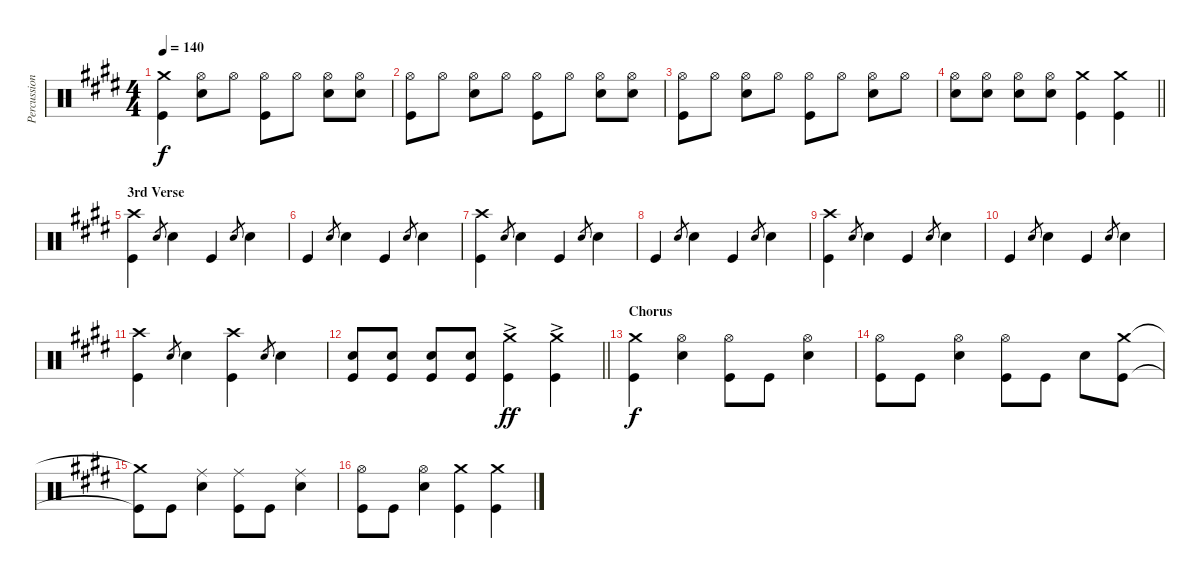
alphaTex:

\track ("Percussion" "Percussion") {instrument percussion}
\staff {score}
\articulation defaults
\ts (4 4)
\tempo 140
\clef neutral
\ks e
("Crash medium (hit)" "Kick (hit)").4{dy f} ("Hi-Hat (open)" "Snare (hit) 2").8 "Hi-Hat (open)".8 ("Hi-Hat (open)" "Kick (hit)").8 "Hi-Hat (open)".8 ("Hi-Hat (open)" "Snare (hit) 2").8 ("Hi-Hat (open)" "Snare (hit) 2").8 |
("Hi-Hat (open)" "Kick (hit)").8 "Hi-Hat (open)".8 ("Hi-Hat (open)" "Snare (hit) 2").8 "Hi-Hat (open)".8 ("Hi-Hat (open)" "Kick (hit)").8 "Hi-Hat (open)".8 ("Hi-Hat (open)" "Snare (hit) 2").8 ("Hi-Hat (open)" "Snare (hit) 2").8 |
("Hi-Hat (open)" "Kick (hit)").8 "Hi-Hat (open)".8 ("Hi-Hat (open)" "Snare (hit) 2").8 "Hi-Hat (open)".8 ("Hi-Hat (open)" "Kick (hit)").8 "Hi-Hat (open)".8 ("Hi-Hat (open)" "Snare (hit) 2").8 "Hi-Hat (open)".8 |
\barLineRight lightlight
("Hi-Hat (open)" "Snare (hit) 2").8 ("Hi-Hat (open)" "Snare (hit) 2").8 ("Hi-Hat (open)" "Snare (hit) 2").8 ("Hi-Hat (open)" "Snare (hit) 2").8 ("Crash medium (hit)" "Kick (hit)").4 ("Crash medium (hit)" "Kick (hit)").4 |
\section ("" "3rd Verse")
("Crash high (hit)" "Kick (hit)").4 "Snare (hit) 2".8{gr} "Snare (hit) 2".4 "Kick (hit)".4 "Snare (hit) 2".8{gr} "Snare (hit) 2".4 |
"Kick (hit)".4 "Snare (hit) 2".8{gr} "Snare (hit) 2".4 "Kick (hit)".4 "Snare (hit) 2".8{gr} "Snare (hit) 2".4 |
("Crash high (hit)" "Kick (hit)").4 "Snare (hit) 2".8{gr} "Snare (hit) 2".4 "Kick (hit)".4 "Snare (hit) 2".8{gr} "Snare (hit) 2".4 |
"Kick (hit)".4 "Snare (hit) 2".8{gr} "Snare (hit) 2".4 "Kick (hit)".4 "Snare (hit) 2".8{gr} "Snare (hit) 2".4 |
("Crash high (hit)" "Kick (hit)").4 "Snare (hit) 2".8{gr} "Snare (hit) 2".4 "Kick (hit)".4 "Snare (hit) 2".8{gr} "Snare (hit) 2".4 |
"Kick (hit)".4 "Snare (hit) 2".8{gr} "Snare (hit) 2".4 "Kick (hit)".4 "Snare (hit) 2".8{gr} "Snare (hit) 2".4 |
("Crash high (hit)" "Kick (hit)").4 "Snare (hit) 2".8{gr} "Snare (hit) 2".4 ("Crash high (hit)" "Kick (hit)").4 "Snare (hit) 2".8{gr} "Snare (hit) 2".4 |
\barLineRight lightlight
("Snare (hit) 2" "Kick (hit)").8 ("Snare (hit) 2" "Kick (hit)").8 ("Snare (hit) 2" "Kick (hit)").8 ("Snare (hit) 2" "Kick (hit)").8 ("Crash medium (hit)"{ac} "Kick (hit)").4{dy ff} ("Crash medium (hit)"{ac} "Kick (hit)").4 |
\section ("" "Chorus")
("Crash medium (hit)" "Kick (hit)").4{dy f} ("Hi-Hat (open)" "Snare (hit) 2").4 ("Hi-Hat (open)" "Kick (hit)").8 "Kick (hit)".8 ("Hi-Hat (open)" "Snare (hit) 2").4 |
("Hi-Hat (open)" "Kick (hit)").8 "Kick (hit)".8 ("Hi-Hat (open)" "Snare (hit) 2").4 ("Hi-Hat (open)" "Kick (hit)").8 "Kick (hit)".8 "Snare (hit) 2".8 ("Crash medium (hit)" "Kick (hit)").8 |
("Crash medium (hit)"{t} "Kick (hit)"{t}).8 "Kick (hit)".8 ("Ride (middle)" "Snare (hit) 2").4 ("Ride (middle)" "Kick (hit)").8 "Kick (hit)".8 ("Ride (middle)" "Snare (hit) 2").4 |
("Hi-Hat (open)" "Kick (hit)").8 "Kick (hit)".8 ("Hi-Hat (open)" "Snare (hit) 2").4 ("Crash medium (hit)" "Kick (hit)").4 ("Crash medium (hit)" "Kick (hit)").4
